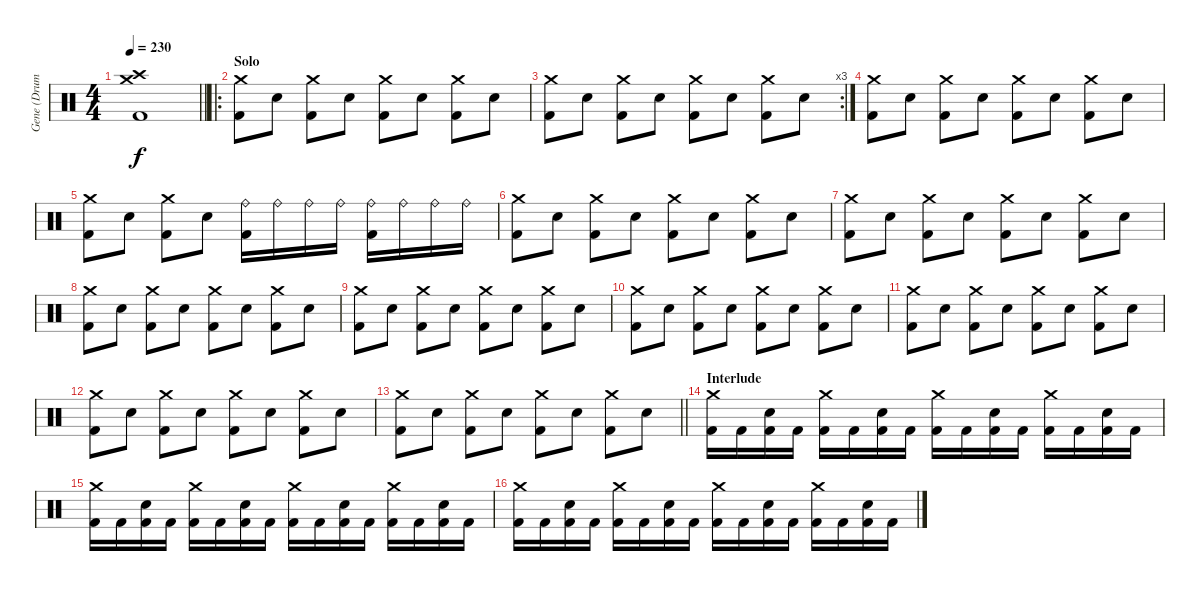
\track ("Gene (Drums)" "Gene (Drum") {instrument percussion}
\staff {score}
\articulation defaults
\ts (4 4)
\tempo 230
\clef neutral
\barLineRight lightlight
\ks c
("Crash medium (hit)" "Crash high (hit)" "Kick (hit) 2").1{dy f} |
\ro
\section ("" "Solo")
("Crash medium (hit)" "Kick (hit) 2").8 "Electric Snare (hit)".8 ("Crash medium (hit)" "Kick (hit) 2").8 "Electric Snare (hit)".8 ("Crash medium (hit)" "Kick (hit) 2").8 "Electric Snare (hit)".8 ("Crash medium (hit)" "Kick (hit) 2").8 "Electric Snare (hit)".8 |
\rc 3
("Crash medium (hit)" "Kick (hit) 2").8 "Electric Snare (hit)".8 ("Crash medium (hit)" "Kick (hit) 2").8 "Electric Snare (hit)".8 ("Crash medium (hit)" "Kick (hit) 2").8 "Electric Snare (hit)".8 ("Crash medium (hit)" "Kick (hit) 2").8 "Electric Snare (hit)".8 |
("Crash medium (hit)" "Kick (hit) 2").8 "Electric Snare (hit)".8 ("Crash medium (hit)" "Kick (hit) 2").8 "Electric Snare (hit)".8 ("Crash medium (hit)" "Kick (hit) 2").8 "Electric Snare (hit)".8 ("Crash medium (hit)" "Kick (hit) 2").8 "Electric Snare (hit)".8 |
("Crash medium (hit)" "Kick (hit) 2").8 "Electric Snare (hit)".8 ("Crash medium (hit)" "Kick (hit) 2").8 "Electric Snare (hit)".8 ("Ride (bell)" "Kick (hit) 2").16 "Ride (bell)".16 "Ride (bell)".16 "Ride (bell)".16 ("Ride (bell)" "Kick (hit) 2").16 "Ride (bell)".16 "Ride (bell)".16 "Ride (bell)".16 |
("Crash medium (hit)" "Kick (hit) 2").8 "Electric Snare (hit)".8 ("Crash medium (hit)" "Kick (hit) 2").8 "Electric Snare (hit)".8 ("Crash medium (hit)" "Kick (hit) 2").8 "Electric Snare (hit)".8 ("Crash medium (hit)" "Kick (hit) 2").8 "Electric Snare (hit)".8 |
("Crash medium (hit)" "Kick (hit) 2").8 "Electric Snare (hit)".8 ("Crash medium (hit)" "Kick (hit) 2").8 "Electric Snare (hit)".8 ("Crash medium (hit)" "Kick (hit) 2").8 "Electric Snare (hit)".8 ("Crash medium (hit)" "Kick (hit) 2").8 "Electric Snare (hit)".8 |
("Crash medium (hit)" "Kick (hit) 2").8 "Electric Snare (hit)".8 ("Crash medium (hit)" "Kick (hit) 2").8 "Electric Snare (hit)".8 ("Crash medium (hit)" "Kick (hit) 2").8 "Electric Snare (hit)".8 ("Crash medium (hit)" "Kick (hit) 2").8 "Electric Snare (hit)".8 |
("Crash medium (hit)" "Kick (hit) 2").8 "Electric Snare (hit)".8 ("Crash medium (hit)" "Kick (hit) 2").8 "Electric Snare (hit)".8 ("Crash medium (hit)" "Kick (hit) 2").8 "Electric Snare (hit)".8 ("Crash medium (hit)" "Kick (hit) 2").8 "Electric Snare (hit)".8 |
("Crash medium (hit)" "Kick (hit) 2").8 "Electric Snare (hit)".8 ("Crash medium (hit)" "Kick (hit) 2").8 "Electric Snare (hit)".8 ("Crash medium (hit)" "Kick (hit) 2").8 "Electric Snare (hit)".8 ("Crash medium (hit)" "Kick (hit) 2").8 "Electric Snare (hit)".8 |
("Crash medium (hit)" "Kick (hit) 2").8 "Electric Snare (hit)".8 ("Crash medium (hit)" "Kick (hit) 2").8 "Electric Snare (hit)".8 ("Crash medium (hit)" "Kick (hit) 2").8 "Electric Snare (hit)".8 ("Crash medium (hit)" "Kick (hit) 2").8 "Electric Snare (hit)".8 |
("Crash medium (hit)" "Kick (hit) 2").8 "Electric Snare (hit)".8 ("Crash medium (hit)" "Kick (hit) 2").8 "Electric Snare (hit)".8 ("Crash medium (hit)" "Kick (hit) 2").8 "Electric Snare (hit)".8 ("Crash medium (hit)" "Kick (hit) 2").8 "Electric Snare (hit)".8 |
\barLineRight lightlight
("Crash medium (hit)" "Kick (hit) 2").8 "Electric Snare (hit)".8 ("Crash medium (hit)" "Kick (hit) 2").8 "Electric Snare (hit)".8 ("Crash medium (hit)" "Kick (hit) 2").8 "Electric Snare (hit)".8 ("Crash medium (hit)" "Kick (hit) 2").8 "Electric Snare (hit)".8 |
\section ("" "Interlude")
("Crash medium (hit)" "Kick (hit) 2").16 "Kick (hit) 2".16 ("Electric Snare (hit)" "Kick (hit) 2").16 "Kick (hit) 2".16 ("Crash medium (hit)" "Kick (hit) 2").16 "Kick (hit) 2".16 ("Electric Snare (hit)" "Kick (hit) 2").16 "Kick (hit) 2".16 ("Crash medium (hit)" "Kick (hit) 2").16 "Kick (hit) 2".16 ("Electric Snare (hit)" "Kick (hit) 2").16 "Kick (hit) 2".16 ("Crash medium (hit)" "Kick (hit) 2").16 "Kick (hit) 2".16 ("Electric Snare (hit)" "Kick (hit) 2").16 "Kick (hit) 2".16 |
("Crash medium (hit)" "Kick (hit) 2").16 "Kick (hit) 2".16 ("Electric Snare (hit)" "Kick (hit) 2").16 "Kick (hit) 2".16 ("Crash medium (hit)" "Kick (hit) 2").16 "Kick (hit) 2".16 ("Electric Snare (hit)" "Kick (hit) 2").16 "Kick (hit) 2".16 ("Crash medium (hit)" "Kick (hit) 2").16 "Kick (hit) 2".16 ("Electric Snare (hit)" "Kick (hit) 2").16 "Kick (hit) 2".16 ("Crash medium (hit)" "Kick (hit) 2").16 "Kick (hit) 2".16 ("Electric Snare (hit)" "Kick (hit) 2").16 "Kick (hit) 2".16 |
("Crash medium (hit)" "Kick (hit) 2").16 "Kick (hit) 2".16 ("Electric Snare (hit)" "Kick (hit) 2").16 "Kick (hit) 2".16 ("Crash medium (hit)" "Kick (hit) 2").16 "Kick (hit) 2".16 ("Electric Snare (hit)" "Kick (hit) 2").16 "Kick (hit) 2".16 ("Crash medium (hit)" "Kick (hit) 2").16 "Kick (hit) 2".16 ("Electric Snare (hit)" "Kick (hit) 2").16 "Kick (hit) 2".16 ("Crash medium (hit)" "Kick (hit) 2").16 "Kick (hit) 2".16 ("Electric Snare (hit)" "Kick (hit) 2").16 "Kick (hit) 2".16
